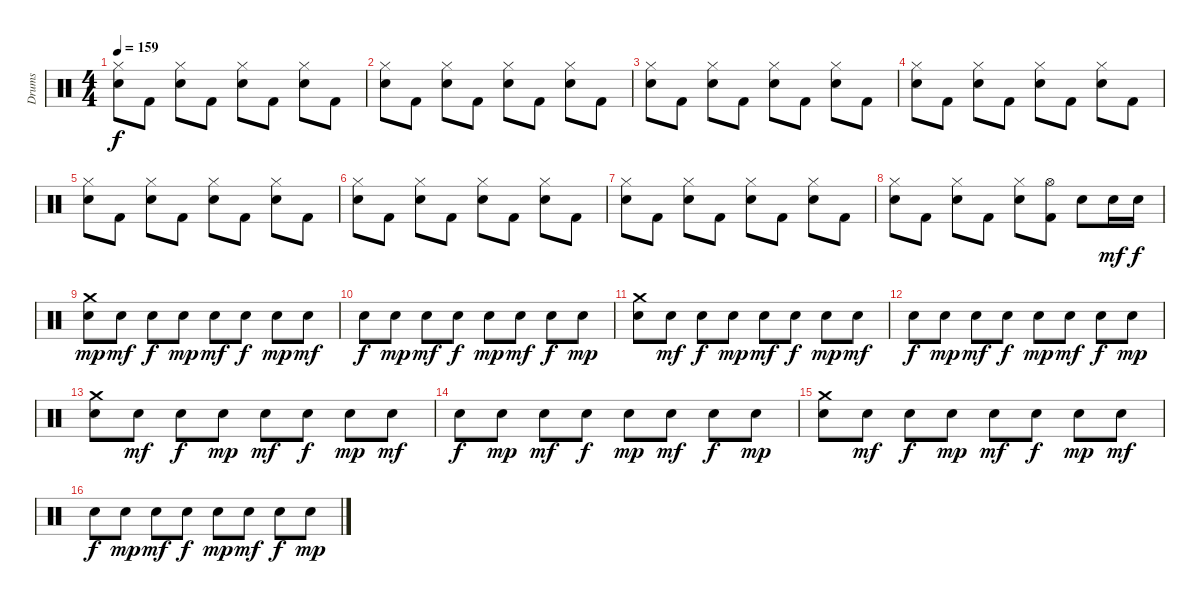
\track ("Drums" "Drums") {instrument percussion}
\staff {score}
\articulation defaults
\ts (4 4)
\tempo 159
\clef neutral
\ks c
("Electric Snare (hit)" "Hi-Hat (closed)").8{dy f} "Kick (hit) 2".8 ("Electric Snare (hit)" "Hi-Hat (closed)").8 "Kick (hit) 2".8 ("Electric Snare (hit)" "Hi-Hat (closed)").8 "Kick (hit) 2".8 ("Electric Snare (hit)" "Hi-Hat (closed)").8 "Kick (hit) 2".8 |
("Electric Snare (hit)" "Hi-Hat (closed)").8 "Kick (hit) 2".8 ("Electric Snare (hit)" "Hi-Hat (closed)").8 "Kick (hit) 2".8 ("Electric Snare (hit)" "Hi-Hat (closed)").8 "Kick (hit) 2".8 ("Electric Snare (hit)" "Hi-Hat (closed)").8 "Kick (hit) 2".8 |
("Electric Snare (hit)" "Hi-Hat (closed)").8 "Kick (hit) 2".8 ("Electric Snare (hit)" "Hi-Hat (closed)").8 "Kick (hit) 2".8 ("Electric Snare (hit)" "Hi-Hat (closed)").8 "Kick (hit) 2".8 ("Electric Snare (hit)" "Hi-Hat (closed)").8 "Kick (hit) 2".8 |
("Electric Snare (hit)" "Hi-Hat (closed)").8 "Kick (hit) 2".8 ("Electric Snare (hit)" "Hi-Hat (closed)").8 "Kick (hit) 2".8 ("Electric Snare (hit)" "Hi-Hat (closed)").8 "Kick (hit) 2".8 ("Electric Snare (hit)" "Hi-Hat (closed)").8 "Kick (hit) 2".8 |
("Electric Snare (hit)" "Hi-Hat (closed)").8 "Kick (hit) 2".8 ("Electric Snare (hit)" "Hi-Hat (closed)").8 "Kick (hit) 2".8 ("Electric Snare (hit)" "Hi-Hat (closed)").8 "Kick (hit) 2".8 ("Electric Snare (hit)" "Hi-Hat (closed)").8 "Kick (hit) 2".8 |
("Electric Snare (hit)" "Hi-Hat (closed)").8 "Kick (hit) 2".8 ("Electric Snare (hit)" "Hi-Hat (closed)").8 "Kick (hit) 2".8 ("Electric Snare (hit)" "Hi-Hat (closed)").8 "Kick (hit) 2".8 ("Electric Snare (hit)" "Hi-Hat (closed)").8 "Kick (hit) 2".8 |
("Electric Snare (hit)" "Hi-Hat (closed)").8 "Kick (hit) 2".8 ("Electric Snare (hit)" "Hi-Hat (closed)").8 "Kick (hit) 2".8 ("Electric Snare (hit)" "Hi-Hat (closed)").8 "Kick (hit) 2".8 ("Electric Snare (hit)" "Hi-Hat (closed)").8 "Kick (hit) 2".8 |
("Electric Snare (hit)" "Hi-Hat (closed)").8 "Kick (hit) 2".8 ("Electric Snare (hit)" "Hi-Hat (closed)").8 "Kick (hit) 2".8 ("Electric Snare (hit)" "Hi-Hat (closed)").8 ("Kick (hit) 2" "Hi-Hat (open)").8 "Electric Snare (hit)".8 "Electric Snare (hit)".16{dy mf} "Electric Snare (hit)".16{dy f} |
("Electric Snare (hit)" "Crash medium (hit)").8{dy mp} "Electric Snare (hit)".8{dy mf} "Electric Snare (hit)".8{dy f} "Electric Snare (hit)".8{dy mp} "Electric Snare (hit)".8{dy mf} "Electric Snare (hit)".8{dy f} "Electric Snare (hit)".8{dy mp} "Electric Snare (hit)".8{dy mf} |
"Electric Snare (hit)".8{dy f} "Electric Snare (hit)".8{dy mp} "Electric Snare (hit)".8{dy mf} "Electric Snare (hit)".8{dy f} "Electric Snare (hit)".8{dy mp} "Electric Snare (hit)".8{dy mf} "Electric Snare (hit)".8{dy f} "Electric Snare (hit)".8{dy mp} |
("Electric Snare (hit)" "Crash medium (hit)").8 "Electric Snare (hit)".8{dy mf} "Electric Snare (hit)".8{dy f} "Electric Snare (hit)".8{dy mp} "Electric Snare (hit)".8{dy mf} "Electric Snare (hit)".8{dy f} "Electric Snare (hit)".8{dy mp} "Electric Snare (hit)".8{dy mf} |
"Electric Snare (hit)".8{dy f} "Electric Snare (hit)".8{dy mp} "Electric Snare (hit)".8{dy mf} "Electric Snare (hit)".8{dy f} "Electric Snare (hit)".8{dy mp} "Electric Snare (hit)".8{dy mf} "Electric Snare (hit)".8{dy f} "Electric Snare (hit)".8{dy mp} |
("Electric Snare (hit)" "Crash medium (hit)").8 "Electric Snare (hit)".8{dy mf} "Electric Snare (hit)".8{dy f} "Electric Snare (hit)".8{dy mp} "Electric Snare (hit)".8{dy mf} "Electric Snare (hit)".8{dy f} "Electric Snare (hit)".8{dy mp} "Electric Snare (hit)".8{dy mf} |
"Electric Snare (hit)".8{dy f} "Electric Snare (hit)".8{dy mp} "Electric Snare (hit)".8{dy mf} "Electric Snare (hit)".8{dy f} "Electric Snare (hit)".8{dy mp} "Electric Snare (hit)".8{dy mf} "Electric Snare (hit)".8{dy f} "Electric Snare (hit)".8{dy mp} |
("Electric Snare (hit)" "Crash medium (hit)").8 "Electric Snare (hit)".8{dy mf} "Electric Snare (hit)".8{dy f} "Electric Snare (hit)".8{dy mp} "Electric Snare (hit)".8{dy mf} "Electric Snare (hit)".8{dy f} "Electric Snare (hit)".8{dy mp} "Electric Snare (hit)".8{dy mf} |
"Electric Snare (hit)".8{dy f} "Electric Snare (hit)".8{dy mp} "Electric Snare (hit)".8{dy mf} "Electric Snare (hit)".8{dy f} "Electric Snare (hit)".8{dy mp} "Electric Snare (hit)".8{dy mf} "Electric Snare (hit)".8{dy f} "Electric Snare (hit)".8{dy mp}
